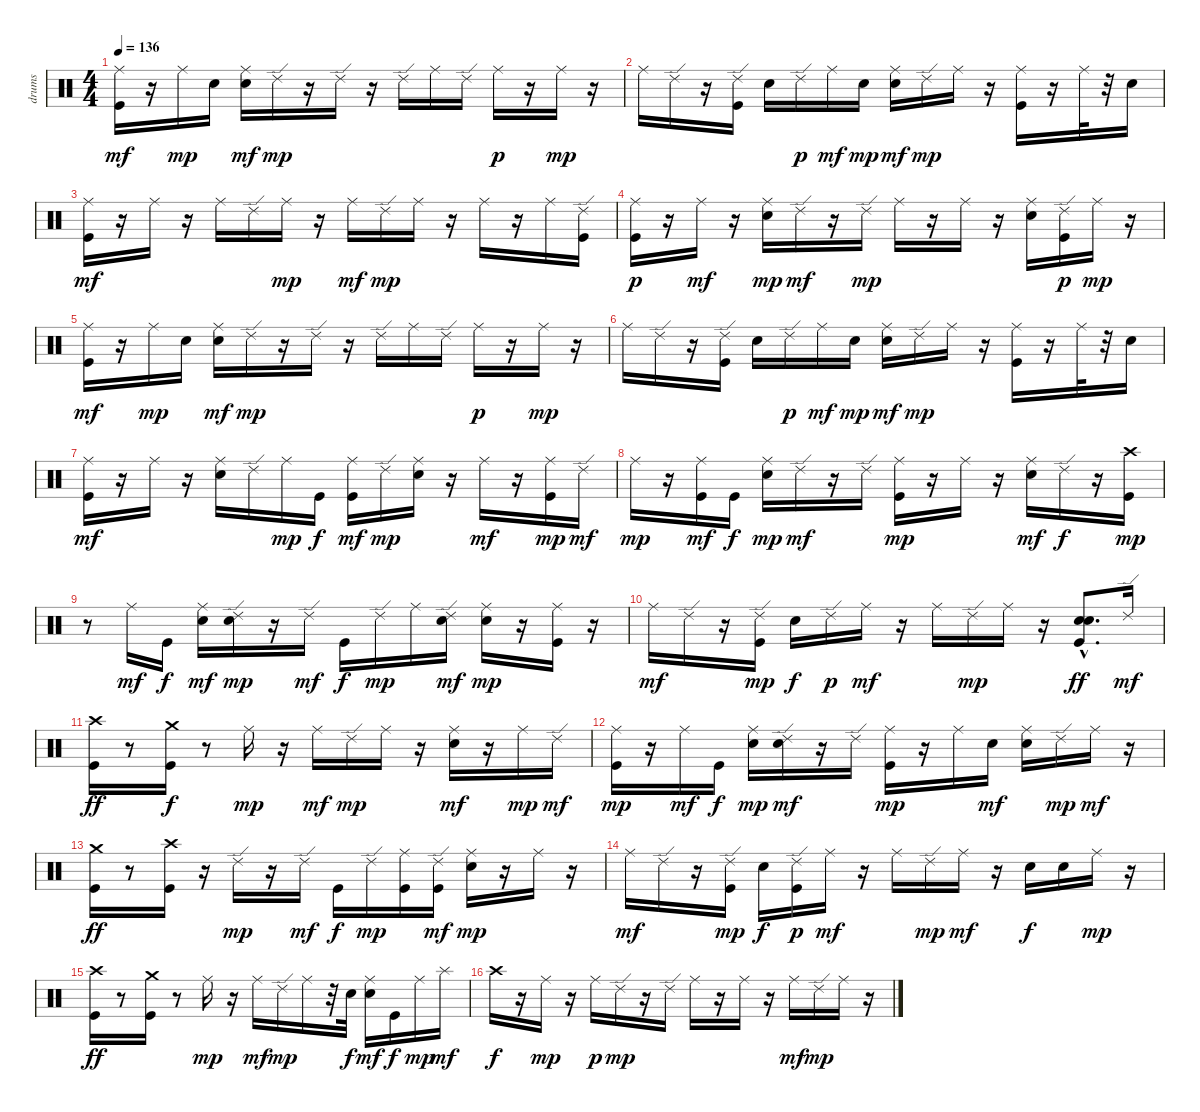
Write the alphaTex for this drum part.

\track ("drums   " "drums   ") {instrument percussion}
\staff {score}
\articulation defaults
\ts (4 4)
\tempo 136
\clef neutral
\ks c
("Kick (hit)" "Ride (middle)").16{dy mf} r.16 "Ride (middle)".16{dy mp} "Electric Snare (hit)".16 ("Electric Snare (hit)" "Ride (middle)").16{dy mf} "Ride (edge) 2".16{dy mp} r.16 "Ride (edge) 2".16 r.16 "Ride (edge) 2".16 "Ride (middle)".16 "Ride (edge) 2".16 "Ride (middle)".16{dy p} r.16 "Ride (middle)".16{dy mp} r.16 |
"Ride (middle)".16 "Ride (edge) 2".16 r.16 ("Kick (hit)" "Ride (edge) 2").16 "Electric Snare (hit)".16 "Ride (edge) 2".16{dy p} "Ride (middle)".16{dy mf} "Electric Snare (hit)".16{dy mp} ("Electric Snare (hit)" "Ride (middle)").16{dy mf} "Ride (edge) 2".16{dy mp} "Ride (middle)".16 r.16 ("Kick (hit)" "Ride (middle)").16 r.16 "Ride (middle)".32 r.32 "Electric Snare (hit)".16 |
("Kick (hit)" "Ride (middle)").16{dy mf} r.16 "Ride (middle)".16 r.16 "Ride (middle)".16 "Ride (edge) 2".16 "Ride (middle)".16{dy mp} r.16 "Ride (middle)".16{dy mf} "Ride (edge) 2".16{dy mp} "Ride (middle)".16 r.16 "Ride (middle)".16 r.16 "Ride (middle)".16 ("Kick (hit)" "Ride (edge) 2").16 |
("Kick (hit)" "Ride (middle)").16{dy p} r.16 "Ride (middle)".16{dy mf} r.16 ("Electric Snare (hit)" "Ride (middle)").16{dy mp} "Ride (edge) 2".16{dy mf} r.16 "Ride (edge) 2".16{dy mp} "Ride (middle)".16 r.16 "Ride (middle)".16 r.16 ("Electric Snare (hit)" "Ride (middle)").16 ("Kick (hit)" "Ride (edge) 2").16{dy p} "Ride (middle)".16{dy mp} r.16 |
("Kick (hit)" "Ride (middle)").16{dy mf} r.16 "Ride (middle)".16{dy mp} "Electric Snare (hit)".16 ("Electric Snare (hit)" "Ride (middle)").16{dy mf} "Ride (edge) 2".16{dy mp} r.16 "Ride (edge) 2".16 r.16 "Ride (edge) 2".16 "Ride (middle)".16 "Ride (edge) 2".16 "Ride (middle)".16{dy p} r.16 "Ride (middle)".16{dy mp} r.16 |
"Ride (middle)".16 "Ride (edge) 2".16 r.16 ("Kick (hit)" "Ride (edge) 2").16 "Electric Snare (hit)".16 "Ride (edge) 2".16{dy p} "Ride (middle)".16{dy mf} "Electric Snare (hit)".16{dy mp} ("Electric Snare (hit)" "Ride (middle)").16{dy mf} "Ride (edge) 2".16{dy mp} "Ride (middle)".16 r.16 ("Kick (hit)" "Ride (middle)").16 r.16 "Ride (middle)".32 r.32 "Electric Snare (hit)".16 |
("Kick (hit)" "Ride (middle)").16{dy mf} r.16 "Ride (middle)".16 r.16 ("Electric Snare (hit)" "Ride (middle)").16 "Ride (edge) 2".16 "Ride (middle)".16{dy mp} "Kick (hit)".16{dy f} ("Kick (hit)" "Ride (middle)").16{dy mf} "Ride (edge) 2".16{dy mp} ("Electric Snare (hit)" "Ride (middle)").16 r.16 "Ride (middle)".16{dy mf} r.16 ("Kick (hit)" "Ride (middle)").16{dy mp} "Ride (edge) 2".16{dy mf} |
"Ride (middle)".16{dy mp} r.16 ("Kick (hit)" "Ride (middle)").16{dy mf} "Kick (hit)".16{dy f} ("Electric Snare (hit)" "Ride (middle)").16{dy mp} "Ride (edge) 2".16{dy mf} r.16 "Ride (edge) 2".16 ("Kick (hit)" "Ride (middle)").16{dy mp} r.16 "Ride (middle)".16 r.16 ("Electric Snare (hit)" "Ride (middle)").16{dy mf} "Ride (edge) 2".16{dy f} r.16 ("Crash high (hit)" "Kick (hit)").16{dy mp} |
r.8 "Ride (middle)".16{dy mf} "Kick (hit)".16{dy f} ("Electric Snare (hit)" "Ride (middle)").16{dy mf} ("Electric Snare (hit)" "Ride (edge) 2").16{dy mp} r.16 "Ride (edge) 2".16{dy mf} "Kick (hit)".16{dy f} "Ride (edge) 2".16{dy mp} "Ride (middle)".16 ("Electric Snare (hit)" "Ride (edge) 2").16{dy mf} ("Electric Snare (hit)" "Ride (middle)").16{dy mp} r.16 ("Kick (hit)" "Ride (middle)").16 r.16 |
"Ride (middle)".16{dy mf} "Ride (edge) 2".16 r.16 ("Kick (hit)" "Ride (edge) 2").16{dy mp} "Electric Snare (hit)".16{dy f} "Ride (edge) 2".16{dy p} "Ride (middle)".16{dy mf} r.16 "Ride (middle)".16 "Ride (edge) 2".16{dy mp} "Ride (middle)".16 r.16 ("Electric Snare (hit)"{hac} "Kick (hit)" "Electric Snare (hit)").8{d dy ff} "Ride (edge) 2".16{dy mf} |
("Kick (hit)" "Crash high (hit)").16{dy ff} r.8 ("Kick (hit)" "Crash medium (hit)").16{dy f} r.8 "Ride (middle)".16{dy mp} r.16 "Ride (middle)".16{dy mf} "Ride (edge) 2".16{dy mp} "Ride (middle)".16 r.16 ("Electric Snare (hit)" "Ride (middle)").16{dy mf} r.16 "Ride (middle)".16{dy mp} "Ride (edge) 2".16{dy mf} |
("Kick (hit)" "Ride (middle)").16{dy mp} r.16 "Ride (middle)".16{dy mf} "Kick (hit)".16{dy f} ("Electric Snare (hit)" "Ride (middle)").16{dy mp} ("Electric Snare (hit)" "Ride (edge) 2").16{dy mf} r.16 "Ride (edge) 2".16 ("Kick (hit)" "Ride (middle)").16{dy mp} r.16 "Ride (middle)".16 "Electric Snare (hit)".16{dy mf} ("Electric Snare (hit)" "Ride (middle)").16 "Ride (edge) 2".16{dy mp} "Ride (middle)".16{dy mf} r.16 |
("Kick (hit)" "Crash medium (hit)").16{dy ff} r.8 ("Kick (hit)" "Crash high (hit)").16 r.16 "Ride (edge) 2".16{dy mp} r.16 "Ride (edge) 2".16{dy mf} "Kick (hit)".16{dy f} "Ride (edge) 2".16{dy mp} ("Kick (hit)" "Ride (middle)").16 ("Kick (hit)" "Ride (edge) 2").16{dy mf} ("Electric Snare (hit)" "Ride (middle)").16{dy mp} r.16 "Ride (middle)".16 r.16 |
"Ride (middle)".16{dy mf} "Ride (edge) 2".16 r.16 ("Kick (hit)" "Ride (edge) 2").16{dy mp} "Electric Snare (hit)".16{dy f} ("Kick (hit)" "Ride (edge) 2").16{dy p} "Ride (middle)".16{dy mf} r.16 "Ride (middle)".16 "Ride (edge) 2".16{dy mp} "Ride (middle)".16{dy mf} r.16 "Electric Snare (hit)".16{dy f} "Electric Snare (hit)".16 "Ride (middle)".16{dy mp} r.16 |
("Kick (hit)" "Crash high (hit)").16{dy ff} r.8 ("Kick (hit)" "Crash medium (hit)").16 r.8 "Ride (middle)".16{dy mp} r.16 "Ride (middle)".16{dy mf} "Ride (edge) 2".16{dy mp} "Ride (middle)".16 r.32 "Electric Snare (hit)".32{dy f} ("Electric Snare (hit)" "Ride (middle)").16{dy mf} "Kick (hit)".16{dy f} "Ride (middle)".16{dy mp} "Splash (hit)".16{dy mf} |
"Crash high (hit)".16{dy f} r.16 "Ride (middle)".16{dy mp} r.16 "Ride (middle)".16{dy p} "Ride (edge) 2".16{dy mp} r.16 "Ride (edge) 2".16 "Ride (middle)".16 r.16 "Ride (middle)".16 r.16 "Ride (middle)".16{dy mf} "Ride (edge) 2".16{dy mp} "Ride (middle)".16 r.16
